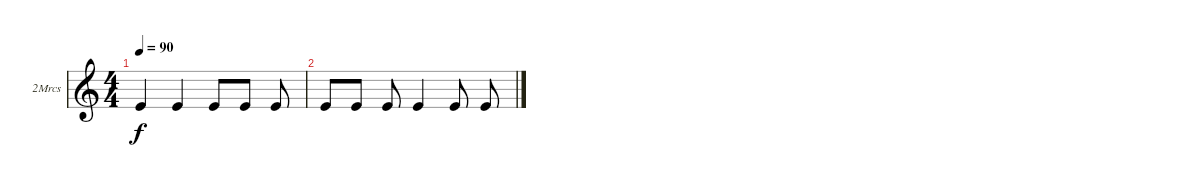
\defaultSystemsLayout 4
\bracketExtendMode groupsimilarinstruments
\firstSystemTrackNameOrientation horizontal
\otherSystemsTrackNameOrientation horizontal
\track ("2 Hands Maracas" "2Mrcs") {instrument percussion}
\staff {score}
\articulation defaults
\ts (4 4)
\tempo 90
\clef g2
\ks c "Kick (hit)".4{dy f} "Kick (hit)".4 "Kick (hit)".8 "Kick (hit)".8 "Kick (hit)".8
|
"Kick (hit)".8 "Kick (hit)".8 "Kick (hit)".8 "Kick (hit)".4 "Kick (hit)".8 "Kick (hit)".8
